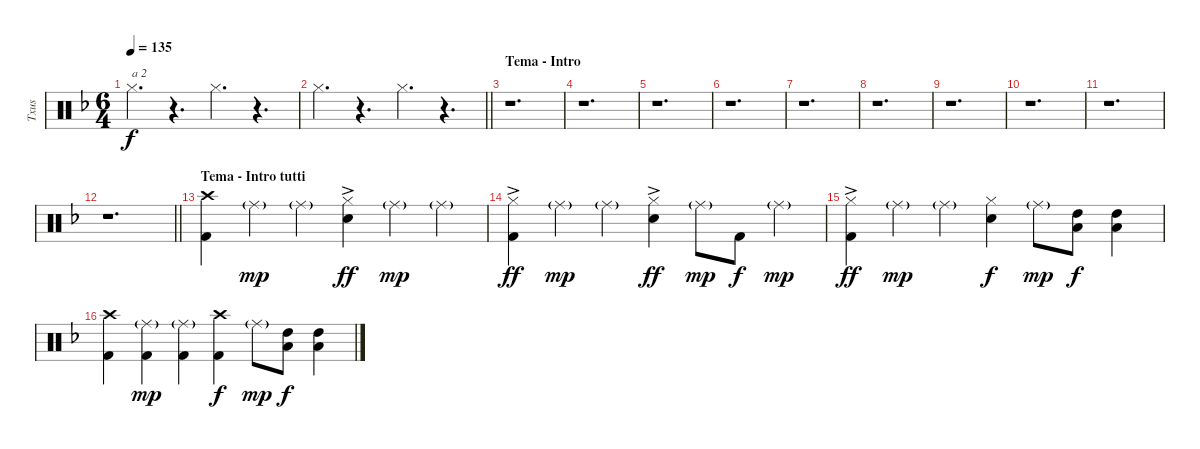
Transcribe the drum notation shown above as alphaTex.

\track ("Txus" "Txus") {instrument percussion}
\staff {score}
\articulation defaults
\ts (6 4)
\tempo 135
\clef neutral
\ks dminor "Hi-Hat (closed)".4{d txt "a 2" dy f}
r.4{d} "Hi-Hat (closed)".4{d} r.4{d} |
\barLineRight lightlight "Hi-Hat (closed)".4{d}
r.4{d} "Hi-Hat (closed)".4{d} r.4{d} |
\section ("" "Tema - Intro")
r.1{d} |
r.1{d} |
r.1{d} |
r.1{d} |
r.1{d} |
r.1{d} |
r.1{d} |
r.1{d} |
r.1{d} |
\barLineRight lightlight
r.1{d} |
\section ("" "Tema - Intro tutti")
("Crash high (hit)" "Kick (hit) 2").4 "Ride (middle)"{g}.4{dy mp} "Ride (middle)"{g}.4 ("Hi-Hat (closed)"{ac} "Snare (hit) 2").4{dy ff} "Ride (middle)"{g}.4{dy mp} "Ride (middle)"{g}.4 |
("Hi-Hat (closed)"{ac} "Kick (hit) 2").4{dy ff} "Ride (middle)"{g}.4{dy mp} "Ride (middle)"{g}.4 ("Hi-Hat (closed)"{ac} "Snare (hit) 2").4{dy ff} "Ride (middle)"{g}.8{dy mp} "Kick (hit) 2".8{dy f} "Ride (middle)"{g}.4{dy mp} |
("Hi-Hat (closed)"{ac} "Kick (hit) 2").4{dy ff} "Ride (middle)"{g}.4{dy mp} "Ride (middle)"{g}.4 ("Hi-Hat (closed)" "Snare (hit) 2").4{dy f} "Ride (middle)"{g}.8{dy mp} ("High Tom (hit)" "Low Tom (hit)").8{dy f} ("High Tom (hit)" "Low Tom (hit)").4 |
("Crash high (hit)" "Kick (hit) 2").4 ("Ride (middle)"{g} "Kick (hit) 2").4{dy mp} ("Ride (middle)"{g} "Kick (hit) 2").4 ("Crash high (hit)" "Kick (hit) 2").4{dy f} "Ride (middle)"{g}.8{dy mp} ("Low Tom (hit)" "High Tom (hit)").8{dy f} ("Low Tom (hit)" "High Tom (hit)").4
